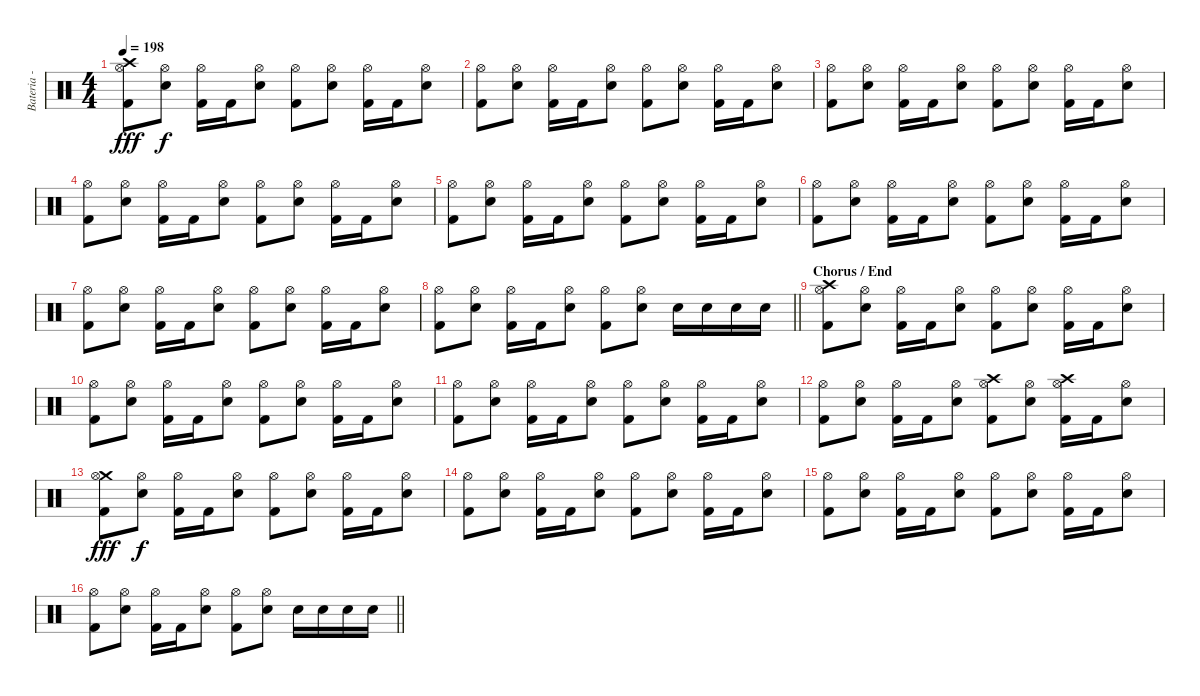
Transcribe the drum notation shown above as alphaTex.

\track ("Bateria - Larzon" "Bateria - ") {instrument percussion}
\staff {score}
\articulation defaults
\ts (4 4)
\tempo 198
\clef neutral
\ks c
("Crash high (hit)" "Hi-Hat (open)" "Kick (hit) 2").8{dy fff} ("Hi-Hat (open)" "Snare (hit) 2").8{dy f} ("Hi-Hat (open)" "Kick (hit) 2").16 "Kick (hit) 2".16 ("Hi-Hat (open)" "Snare (hit) 2").8 ("Hi-Hat (open)" "Kick (hit) 2").8 ("Hi-Hat (open)" "Snare (hit) 2").8 ("Hi-Hat (open)" "Kick (hit) 2").16 "Kick (hit) 2".16 ("Hi-Hat (open)" "Snare (hit) 2").8 |
("Hi-Hat (open)" "Kick (hit) 2").8 ("Hi-Hat (open)" "Snare (hit) 2").8 ("Hi-Hat (open)" "Kick (hit) 2").16 "Kick (hit) 2".16 ("Hi-Hat (open)" "Snare (hit) 2").8 ("Hi-Hat (open)" "Kick (hit) 2").8 ("Hi-Hat (open)" "Snare (hit) 2").8 ("Hi-Hat (open)" "Kick (hit) 2").16 "Kick (hit) 2".16 ("Hi-Hat (open)" "Snare (hit) 2").8 |
("Hi-Hat (open)" "Kick (hit) 2").8 ("Hi-Hat (open)" "Snare (hit) 2").8 ("Hi-Hat (open)" "Kick (hit) 2").16 "Kick (hit) 2".16 ("Hi-Hat (open)" "Snare (hit) 2").8 ("Hi-Hat (open)" "Kick (hit) 2").8 ("Hi-Hat (open)" "Snare (hit) 2").8 ("Hi-Hat (open)" "Kick (hit) 2").16 "Kick (hit) 2".16 ("Hi-Hat (open)" "Snare (hit) 2").8 |
("Hi-Hat (open)" "Kick (hit) 2").8 ("Hi-Hat (open)" "Snare (hit) 2").8 ("Hi-Hat (open)" "Kick (hit) 2").16 "Kick (hit) 2".16 ("Hi-Hat (open)" "Snare (hit) 2").8 ("Hi-Hat (open)" "Kick (hit) 2").8 ("Hi-Hat (open)" "Snare (hit) 2").8 ("Hi-Hat (open)" "Kick (hit) 2").16 "Kick (hit) 2".16 ("Hi-Hat (open)" "Snare (hit) 2").8 |
("Hi-Hat (open)" "Kick (hit) 2").8 ("Hi-Hat (open)" "Snare (hit) 2").8 ("Hi-Hat (open)" "Kick (hit) 2").16 "Kick (hit) 2".16 ("Hi-Hat (open)" "Snare (hit) 2").8 ("Hi-Hat (open)" "Kick (hit) 2").8 ("Hi-Hat (open)" "Snare (hit) 2").8 ("Hi-Hat (open)" "Kick (hit) 2").16 "Kick (hit) 2".16 ("Hi-Hat (open)" "Snare (hit) 2").8 |
("Hi-Hat (open)" "Kick (hit) 2").8 ("Hi-Hat (open)" "Snare (hit) 2").8 ("Hi-Hat (open)" "Kick (hit) 2").16 "Kick (hit) 2".16 ("Hi-Hat (open)" "Snare (hit) 2").8 ("Hi-Hat (open)" "Kick (hit) 2").8 ("Hi-Hat (open)" "Snare (hit) 2").8 ("Hi-Hat (open)" "Kick (hit) 2").16 "Kick (hit) 2".16 ("Hi-Hat (open)" "Snare (hit) 2").8 |
("Hi-Hat (open)" "Kick (hit) 2").8 ("Hi-Hat (open)" "Snare (hit) 2").8 ("Hi-Hat (open)" "Kick (hit) 2").16 "Kick (hit) 2".16 ("Hi-Hat (open)" "Snare (hit) 2").8 ("Hi-Hat (open)" "Kick (hit) 2").8 ("Hi-Hat (open)" "Snare (hit) 2").8 ("Hi-Hat (open)" "Kick (hit) 2").16 "Kick (hit) 2".16 ("Hi-Hat (open)" "Snare (hit) 2").8 |
\barLineRight lightlight
("Hi-Hat (open)" "Kick (hit) 2").8 ("Hi-Hat (open)" "Snare (hit) 2").8 ("Hi-Hat (open)" "Kick (hit) 2").16 "Kick (hit) 2".16 ("Hi-Hat (open)" "Snare (hit) 2").8 ("Hi-Hat (open)" "Kick (hit) 2").8 ("Hi-Hat (open)" "Snare (hit) 2").8 "Snare (hit) 2".16 "Snare (hit) 2".16 "Snare (hit) 2".16 "Snare (hit) 2".16 |
\section ("" "Chorus / End")
("Crash high (hit)" "Hi-Hat (open)" "Kick (hit) 2").8 ("Hi-Hat (open)" "Snare (hit) 2").8 ("Hi-Hat (open)" "Kick (hit) 2").16 "Kick (hit) 2".16 ("Hi-Hat (open)" "Snare (hit) 2").8 ("Hi-Hat (open)" "Kick (hit) 2").8 ("Hi-Hat (open)" "Snare (hit) 2").8 ("Hi-Hat (open)" "Kick (hit) 2").16 "Kick (hit) 2".16 ("Hi-Hat (open)" "Snare (hit) 2").8 |
("Hi-Hat (open)" "Kick (hit) 2").8 ("Hi-Hat (open)" "Snare (hit) 2").8 ("Hi-Hat (open)" "Kick (hit) 2").16 "Kick (hit) 2".16 ("Hi-Hat (open)" "Snare (hit) 2").8 ("Hi-Hat (open)" "Kick (hit) 2").8 ("Hi-Hat (open)" "Snare (hit) 2").8 ("Hi-Hat (open)" "Kick (hit) 2").16 "Kick (hit) 2".16 ("Hi-Hat (open)" "Snare (hit) 2").8 |
("Hi-Hat (open)" "Kick (hit) 2").8 ("Hi-Hat (open)" "Snare (hit) 2").8 ("Hi-Hat (open)" "Kick (hit) 2").16 "Kick (hit) 2".16 ("Hi-Hat (open)" "Snare (hit) 2").8 ("Hi-Hat (open)" "Kick (hit) 2").8 ("Hi-Hat (open)" "Snare (hit) 2").8 ("Hi-Hat (open)" "Kick (hit) 2").16 "Kick (hit) 2".16 ("Hi-Hat (open)" "Snare (hit) 2").8 |
("Hi-Hat (open)" "Kick (hit) 2").8 ("Hi-Hat (open)" "Snare (hit) 2").8 ("Hi-Hat (open)" "Kick (hit) 2").16 "Kick (hit) 2".16 ("Hi-Hat (open)" "Snare (hit) 2").8 ("Crash high (hit)" "Hi-Hat (open)" "Kick (hit) 2").8 ("Hi-Hat (open)" "Snare (hit) 2").8 ("Crash high (hit)" "Hi-Hat (open)" "Kick (hit) 2").16 "Kick (hit) 2".16 ("Hi-Hat (open)" "Snare (hit) 2").8 |
("Crash medium (hit)" "Hi-Hat (open)" "Kick (hit) 2").8{dy fff} ("Hi-Hat (open)" "Snare (hit) 2").8{dy f} ("Hi-Hat (open)" "Kick (hit) 2").16 "Kick (hit) 2".16 ("Hi-Hat (open)" "Snare (hit) 2").8 ("Hi-Hat (open)" "Kick (hit) 2").8 ("Hi-Hat (open)" "Snare (hit) 2").8 ("Hi-Hat (open)" "Kick (hit) 2").16 "Kick (hit) 2".16 ("Hi-Hat (open)" "Snare (hit) 2").8 |
("Hi-Hat (open)" "Kick (hit) 2").8 ("Hi-Hat (open)" "Snare (hit) 2").8 ("Hi-Hat (open)" "Kick (hit) 2").16 "Kick (hit) 2".16 ("Hi-Hat (open)" "Snare (hit) 2").8 ("Hi-Hat (open)" "Kick (hit) 2").8 ("Hi-Hat (open)" "Snare (hit) 2").8 ("Hi-Hat (open)" "Kick (hit) 2").16 "Kick (hit) 2".16 ("Hi-Hat (open)" "Snare (hit) 2").8 |
("Hi-Hat (open)" "Kick (hit) 2").8 ("Hi-Hat (open)" "Snare (hit) 2").8 ("Hi-Hat (open)" "Kick (hit) 2").16 "Kick (hit) 2".16 ("Hi-Hat (open)" "Snare (hit) 2").8 ("Hi-Hat (open)" "Kick (hit) 2").8 ("Hi-Hat (open)" "Snare (hit) 2").8 ("Hi-Hat (open)" "Kick (hit) 2").16 "Kick (hit) 2".16 ("Hi-Hat (open)" "Snare (hit) 2").8 |
\barLineRight lightlight
("Hi-Hat (open)" "Kick (hit) 2").8 ("Hi-Hat (open)" "Snare (hit) 2").8 ("Hi-Hat (open)" "Kick (hit) 2").16 "Kick (hit) 2".16 ("Hi-Hat (open)" "Snare (hit) 2").8 ("Hi-Hat (open)" "Kick (hit) 2").8 ("Hi-Hat (open)" "Snare (hit) 2").8 "Snare (hit) 2".16 "Snare (hit) 2".16 "Snare (hit) 2".16 "Snare (hit) 2".16
